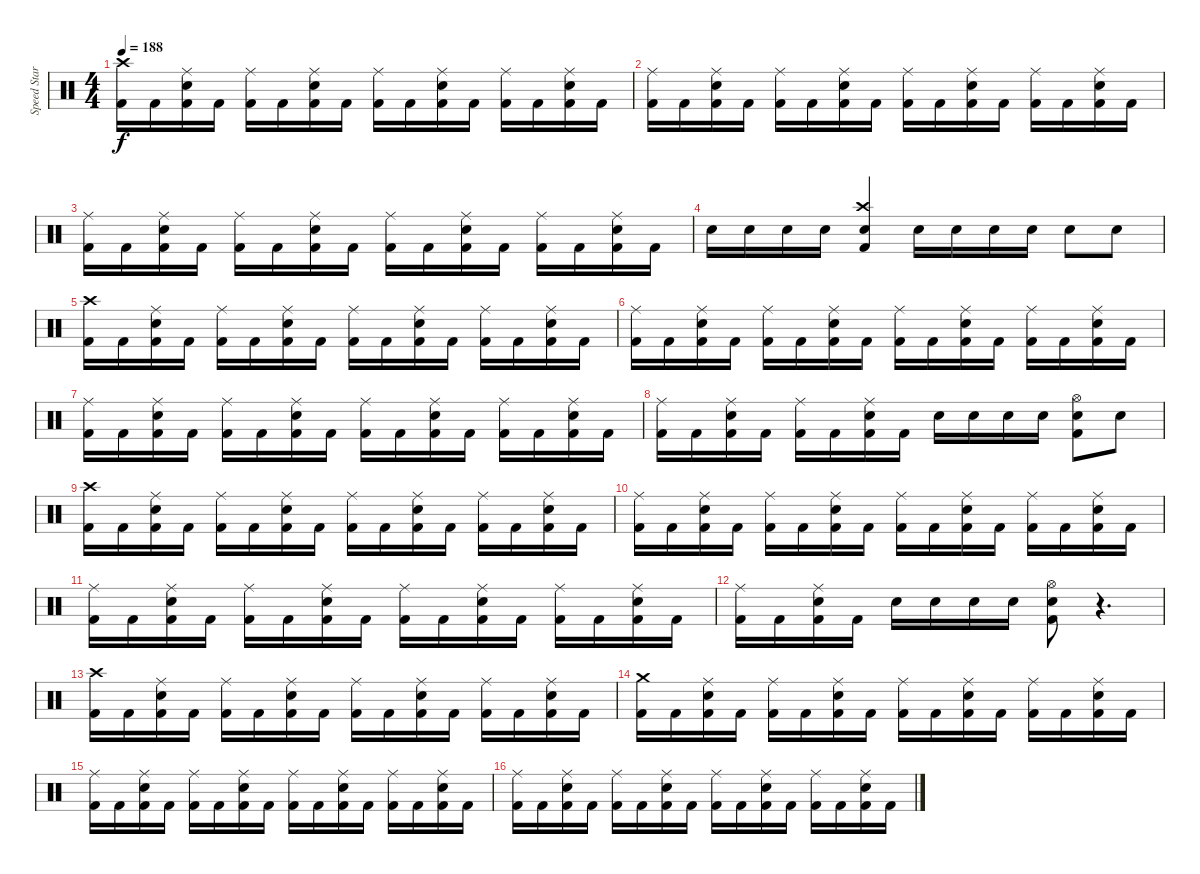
\track ("Speed Star Sypan Joe" "Speed Star") {instrument percussion}
\staff {score}
\articulation defaults
\ts (4 4)
\tempo 188
\clef neutral
\ks c
("Kick (hit) 2" "Crash high (hit)").16{dy f} "Kick (hit) 2".16 ("Kick (hit) 2" "Electric Snare (hit)" "Ride (middle)").16 "Kick (hit) 2".16 ("Kick (hit) 2" "Ride (middle)").16 "Kick (hit) 2".16 ("Kick (hit) 2" "Electric Snare (hit)" "Ride (middle)").16 "Kick (hit) 2".16 ("Kick (hit) 2" "Ride (middle)").16 "Kick (hit) 2".16 ("Kick (hit) 2" "Electric Snare (hit)" "Ride (middle)").16 "Kick (hit) 2".16 ("Kick (hit) 2" "Ride (middle)").16 "Kick (hit) 2".16 ("Kick (hit) 2" "Electric Snare (hit)" "Ride (middle)").16 "Kick (hit) 2".16 |
("Kick (hit) 2" "Ride (middle)").16 "Kick (hit) 2".16 ("Kick (hit) 2" "Electric Snare (hit)" "Ride (middle)").16 "Kick (hit) 2".16 ("Kick (hit) 2" "Ride (middle)").16 "Kick (hit) 2".16 ("Kick (hit) 2" "Electric Snare (hit)" "Ride (middle)").16 "Kick (hit) 2".16 ("Kick (hit) 2" "Ride (middle)").16 "Kick (hit) 2".16 ("Kick (hit) 2" "Electric Snare (hit)" "Ride (middle)").16 "Kick (hit) 2".16 ("Kick (hit) 2" "Ride (middle)").16 "Kick (hit) 2".16 ("Kick (hit) 2" "Electric Snare (hit)" "Ride (middle)").16 "Kick (hit) 2".16 |
("Kick (hit) 2" "Ride (middle)").16 "Kick (hit) 2".16 ("Kick (hit) 2" "Electric Snare (hit)" "Ride (middle)").16 "Kick (hit) 2".16 ("Kick (hit) 2" "Ride (middle)").16 "Kick (hit) 2".16 ("Kick (hit) 2" "Electric Snare (hit)" "Ride (middle)").16 "Kick (hit) 2".16 ("Kick (hit) 2" "Ride (middle)").16 "Kick (hit) 2".16 ("Kick (hit) 2" "Electric Snare (hit)" "Ride (middle)").16 "Kick (hit) 2".16 ("Kick (hit) 2" "Ride (middle)").16 "Kick (hit) 2".16 ("Kick (hit) 2" "Electric Snare (hit)" "Ride (middle)").16 "Kick (hit) 2".16 |
"Electric Snare (hit)".16 "Electric Snare (hit)".16 "Electric Snare (hit)".16 "Electric Snare (hit)".16 ("Electric Snare (hit)" "Kick (hit) 2" "Crash high (hit)").4 "Electric Snare (hit)".16 "Electric Snare (hit)".16 "Electric Snare (hit)".16 "Electric Snare (hit)".16 "Electric Snare (hit)".8 "Electric Snare (hit)".8 |
("Kick (hit) 2" "Crash high (hit)").16 "Kick (hit) 2".16 ("Kick (hit) 2" "Electric Snare (hit)" "Ride (middle)").16 "Kick (hit) 2".16 ("Kick (hit) 2" "Ride (middle)").16 "Kick (hit) 2".16 ("Kick (hit) 2" "Electric Snare (hit)" "Ride (middle)").16 "Kick (hit) 2".16 ("Kick (hit) 2" "Ride (middle)").16 "Kick (hit) 2".16 ("Kick (hit) 2" "Electric Snare (hit)" "Ride (middle)").16 "Kick (hit) 2".16 ("Kick (hit) 2" "Ride (middle)").16 "Kick (hit) 2".16 ("Kick (hit) 2" "Electric Snare (hit)" "Ride (middle)").16 "Kick (hit) 2".16 |
("Kick (hit) 2" "Ride (middle)").16 "Kick (hit) 2".16 ("Kick (hit) 2" "Electric Snare (hit)" "Ride (middle)").16 "Kick (hit) 2".16 ("Kick (hit) 2" "Ride (middle)").16 "Kick (hit) 2".16 ("Kick (hit) 2" "Electric Snare (hit)" "Ride (middle)").16 "Kick (hit) 2".16 ("Kick (hit) 2" "Ride (middle)").16 "Kick (hit) 2".16 ("Kick (hit) 2" "Electric Snare (hit)" "Ride (middle)").16 "Kick (hit) 2".16 ("Kick (hit) 2" "Ride (middle)").16 "Kick (hit) 2".16 ("Kick (hit) 2" "Electric Snare (hit)" "Ride (middle)").16 "Kick (hit) 2".16 |
("Kick (hit) 2" "Ride (middle)").16 "Kick (hit) 2".16 ("Kick (hit) 2" "Electric Snare (hit)" "Ride (middle)").16 "Kick (hit) 2".16 ("Kick (hit) 2" "Ride (middle)").16 "Kick (hit) 2".16 ("Kick (hit) 2" "Electric Snare (hit)" "Ride (middle)").16 "Kick (hit) 2".16 ("Kick (hit) 2" "Ride (middle)").16 "Kick (hit) 2".16 ("Kick (hit) 2" "Electric Snare (hit)" "Ride (middle)").16 "Kick (hit) 2".16 ("Kick (hit) 2" "Ride (middle)").16 "Kick (hit) 2".16 ("Kick (hit) 2" "Electric Snare (hit)" "Ride (middle)").16 "Kick (hit) 2".16 |
("Kick (hit) 2" "Ride (middle)").16 "Kick (hit) 2".16 ("Kick (hit) 2" "Electric Snare (hit)" "Ride (middle)").16 "Kick (hit) 2".16 ("Kick (hit) 2" "Ride (middle)").16 "Kick (hit) 2".16 ("Kick (hit) 2" "Electric Snare (hit)" "Ride (middle)").16 "Kick (hit) 2".16 "Electric Snare (hit)".16 "Electric Snare (hit)".16 "Electric Snare (hit)".16 "Electric Snare (hit)".16 ("Electric Snare (hit)" "Kick (hit) 2" "Hi-Hat (open)").8 "Electric Snare (hit)".8 |
("Kick (hit) 2" "Crash high (hit)").16 "Kick (hit) 2".16 ("Kick (hit) 2" "Electric Snare (hit)" "Ride (middle)").16 "Kick (hit) 2".16 ("Kick (hit) 2" "Ride (middle)").16 "Kick (hit) 2".16 ("Kick (hit) 2" "Electric Snare (hit)" "Ride (middle)").16 "Kick (hit) 2".16 ("Kick (hit) 2" "Ride (middle)").16 "Kick (hit) 2".16 ("Kick (hit) 2" "Electric Snare (hit)" "Ride (middle)").16 "Kick (hit) 2".16 ("Kick (hit) 2" "Ride (middle)").16 "Kick (hit) 2".16 ("Kick (hit) 2" "Electric Snare (hit)" "Ride (middle)").16 "Kick (hit) 2".16 |
("Kick (hit) 2" "Ride (middle)").16 "Kick (hit) 2".16 ("Kick (hit) 2" "Electric Snare (hit)" "Ride (middle)").16 "Kick (hit) 2".16 ("Kick (hit) 2" "Ride (middle)").16 "Kick (hit) 2".16 ("Kick (hit) 2" "Electric Snare (hit)" "Ride (middle)").16 "Kick (hit) 2".16 ("Kick (hit) 2" "Ride (middle)").16 "Kick (hit) 2".16 ("Kick (hit) 2" "Electric Snare (hit)" "Ride (middle)").16 "Kick (hit) 2".16 ("Kick (hit) 2" "Ride (middle)").16 "Kick (hit) 2".16 ("Kick (hit) 2" "Electric Snare (hit)" "Ride (middle)").16 "Kick (hit) 2".16 |
("Kick (hit) 2" "Ride (middle)").16 "Kick (hit) 2".16 ("Kick (hit) 2" "Electric Snare (hit)" "Ride (middle)").16 "Kick (hit) 2".16 ("Kick (hit) 2" "Ride (middle)").16 "Kick (hit) 2".16 ("Kick (hit) 2" "Electric Snare (hit)" "Ride (middle)").16 "Kick (hit) 2".16 ("Kick (hit) 2" "Ride (middle)").16 "Kick (hit) 2".16 ("Kick (hit) 2" "Electric Snare (hit)" "Ride (middle)").16 "Kick (hit) 2".16 ("Kick (hit) 2" "Ride (middle)").16 "Kick (hit) 2".16 ("Kick (hit) 2" "Electric Snare (hit)" "Ride (middle)").16 "Kick (hit) 2".16 |
("Kick (hit) 2" "Ride (middle)").16 "Kick (hit) 2".16 ("Kick (hit) 2" "Electric Snare (hit)" "Ride (middle)").16 "Kick (hit) 2".16 "Electric Snare (hit)".16 "Electric Snare (hit)".16 "Electric Snare (hit)".16 "Electric Snare (hit)".16 ("Electric Snare (hit)" "Kick (hit) 2" "Hi-Hat (open)").8 r.4{d} |
("Kick (hit) 2" "Crash high (hit)").16 "Kick (hit) 2".16 ("Kick (hit) 2" "Electric Snare (hit)" "Ride (middle)").16 "Kick (hit) 2".16 ("Kick (hit) 2" "Ride (middle)").16 "Kick (hit) 2".16 ("Kick (hit) 2" "Electric Snare (hit)" "Ride (middle)").16 "Kick (hit) 2".16 ("Kick (hit) 2" "Ride (middle)").16 "Kick (hit) 2".16 ("Kick (hit) 2" "Electric Snare (hit)" "Ride (middle)").16 "Kick (hit) 2".16 ("Kick (hit) 2" "Ride (middle)").16 "Kick (hit) 2".16 ("Kick (hit) 2" "Electric Snare (hit)" "Ride (middle)").16 "Kick (hit) 2".16 |
("Kick (hit) 2" "Crash medium (hit)").16 "Kick (hit) 2".16 ("Kick (hit) 2" "Electric Snare (hit)" "Ride (middle)").16 "Kick (hit) 2".16 ("Kick (hit) 2" "Ride (middle)").16 "Kick (hit) 2".16 ("Kick (hit) 2" "Electric Snare (hit)" "Ride (middle)").16 "Kick (hit) 2".16 ("Kick (hit) 2" "Ride (middle)").16 "Kick (hit) 2".16 ("Kick (hit) 2" "Electric Snare (hit)" "Ride (middle)").16 "Kick (hit) 2".16 ("Kick (hit) 2" "Ride (middle)").16 "Kick (hit) 2".16 ("Kick (hit) 2" "Electric Snare (hit)" "Ride (middle)").16 "Kick (hit) 2".16 |
("Kick (hit) 2" "Ride (middle)").16 "Kick (hit) 2".16 ("Kick (hit) 2" "Electric Snare (hit)" "Ride (middle)").16 "Kick (hit) 2".16 ("Kick (hit) 2" "Ride (middle)").16 "Kick (hit) 2".16 ("Kick (hit) 2" "Electric Snare (hit)" "Ride (middle)").16 "Kick (hit) 2".16 ("Kick (hit) 2" "Ride (middle)").16 "Kick (hit) 2".16 ("Kick (hit) 2" "Electric Snare (hit)" "Ride (middle)").16 "Kick (hit) 2".16 ("Kick (hit) 2" "Ride (middle)").16 "Kick (hit) 2".16 ("Kick (hit) 2" "Electric Snare (hit)" "Ride (middle)").16 "Kick (hit) 2".16 |
("Kick (hit) 2" "Ride (middle)").16 "Kick (hit) 2".16 ("Kick (hit) 2" "Electric Snare (hit)" "Ride (middle)").16 "Kick (hit) 2".16 ("Kick (hit) 2" "Ride (middle)").16 "Kick (hit) 2".16 ("Kick (hit) 2" "Electric Snare (hit)" "Ride (middle)").16 "Kick (hit) 2".16 ("Kick (hit) 2" "Ride (middle)").16 "Kick (hit) 2".16 ("Kick (hit) 2" "Electric Snare (hit)" "Ride (middle)").16 "Kick (hit) 2".16 ("Kick (hit) 2" "Ride (middle)").16 "Kick (hit) 2".16 ("Kick (hit) 2" "Electric Snare (hit)" "Ride (middle)").16 "Kick (hit) 2".16
